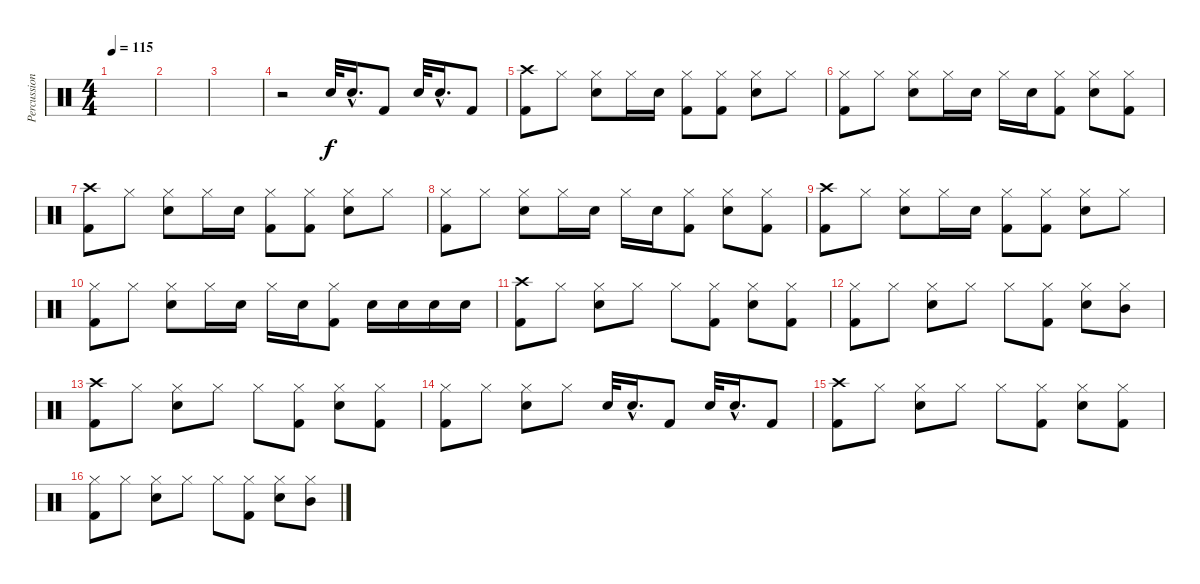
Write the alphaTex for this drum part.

\track ("Percussion" "Percussion") {instrument percussion}
\staff {score}
\articulation defaults
\ts (4 4)
\tempo 115
\clef neutral
\ks c
|
|
|
r.2 "Snare (hit) 2".32 "Snare (hit) 2"{hac}.16{d} "Kick (hit) 2".8 "Snare (hit) 2".32 "Snare (hit) 2"{hac}.16{d} "Kick (hit) 2".8 |
("Crash high (hit)" "Kick (hit) 2").8 "Hi-Hat (closed)".8 ("Hi-Hat (closed)" "Snare (hit) 2").8 "Hi-Hat (closed)".16 "Snare (hit) 2".16 ("Hi-Hat (closed)" "Kick (hit) 2").8 ("Hi-Hat (closed)" "Kick (hit) 2").8 ("Hi-Hat (closed)" "Snare (hit) 2").8 "Hi-Hat (closed)".8 |
("Hi-Hat (closed)" "Kick (hit) 2").8 "Hi-Hat (closed)".8 ("Hi-Hat (closed)" "Snare (hit) 2").8 "Hi-Hat (closed)".16 "Snare (hit) 2".16 "Hi-Hat (closed)".16 "Snare (hit) 2".16 ("Hi-Hat (closed)" "Kick (hit) 2").8 ("Hi-Hat (closed)" "Snare (hit) 2").8 ("Hi-Hat (closed)" "Kick (hit) 2").8 |
("Crash high (hit)" "Kick (hit) 2").8 "Hi-Hat (closed)".8 ("Hi-Hat (closed)" "Snare (hit) 2").8 "Hi-Hat (closed)".16 "Snare (hit) 2".16 ("Hi-Hat (closed)" "Kick (hit) 2").8 ("Hi-Hat (closed)" "Kick (hit) 2").8 ("Hi-Hat (closed)" "Snare (hit) 2").8 "Hi-Hat (closed)".8 |
("Hi-Hat (closed)" "Kick (hit) 2").8 "Hi-Hat (closed)".8 ("Hi-Hat (closed)" "Snare (hit) 2").8 "Hi-Hat (closed)".16 "Snare (hit) 2".16 "Hi-Hat (closed)".16 "Snare (hit) 2".16 ("Hi-Hat (closed)" "Kick (hit) 2").8 ("Hi-Hat (closed)" "Snare (hit) 2").8 ("Hi-Hat (closed)" "Kick (hit) 2").8 |
("Crash high (hit)" "Kick (hit) 2").8 "Hi-Hat (closed)".8 ("Hi-Hat (closed)" "Snare (hit) 2").8 "Hi-Hat (closed)".16 "Snare (hit) 2".16 ("Hi-Hat (closed)" "Kick (hit) 2").8 ("Hi-Hat (closed)" "Kick (hit) 2").8 ("Hi-Hat (closed)" "Snare (hit) 2").8 "Hi-Hat (closed)".8 |
("Hi-Hat (closed)" "Kick (hit) 2").8 "Hi-Hat (closed)".8 ("Hi-Hat (closed)" "Snare (hit) 2").8 "Hi-Hat (closed)".16 "Snare (hit) 2".16 "Hi-Hat (closed)".16 "Snare (hit) 2".16 ("Hi-Hat (closed)" "Kick (hit) 2").8 "Snare (hit) 2".16 "Snare (hit) 2".16 "Snare (hit) 2".16 "Snare (hit) 2".16 |
("Crash high (hit)" "Kick (hit) 2").8 "Hi-Hat (closed)".8 ("Hi-Hat (closed)" "Snare (hit) 2").8 "Hi-Hat (closed)".8 "Hi-Hat (closed)".8 ("Hi-Hat (closed)" "Kick (hit) 2").8 ("Hi-Hat (closed)" "Snare (hit) 2").8 ("Hi-Hat (closed)" "Kick (hit) 2").8 |
("Hi-Hat (closed)" "Kick (hit) 2").8 "Hi-Hat (closed)".8 ("Hi-Hat (closed)" "Snare (hit) 2").8 "Hi-Hat (closed)".8 "Hi-Hat (closed)".8 ("Hi-Hat (closed)" "Kick (hit) 2").8 ("Hi-Hat (closed)" "Snare (hit) 2").8 ("Hi-Hat (closed)" "Mid Tom (hit)").8 |
("Crash high (hit)" "Kick (hit) 2").8 "Hi-Hat (closed)".8 ("Hi-Hat (closed)" "Snare (hit) 2").8 "Hi-Hat (closed)".8 "Hi-Hat (closed)".8 ("Hi-Hat (closed)" "Kick (hit) 2").8 ("Hi-Hat (closed)" "Snare (hit) 2").8 ("Hi-Hat (closed)" "Kick (hit) 2").8 |
("Hi-Hat (closed)" "Kick (hit) 2").8 "Hi-Hat (closed)".8 ("Hi-Hat (closed)" "Snare (hit) 2").8 "Hi-Hat (closed)".8 "Snare (hit) 2".32 "Snare (hit) 2"{hac}.16{d} "Kick (hit) 2".8 "Snare (hit) 2".32 "Snare (hit) 2"{hac}.16{d} "Kick (hit) 2".8 |
("Crash high (hit)" "Kick (hit) 2").8 "Hi-Hat (closed)".8 ("Hi-Hat (closed)" "Snare (hit) 2").8 "Hi-Hat (closed)".8 "Hi-Hat (closed)".8 ("Hi-Hat (closed)" "Kick (hit) 2").8 ("Hi-Hat (closed)" "Snare (hit) 2").8 ("Hi-Hat (closed)" "Kick (hit) 2").8 |
("Hi-Hat (closed)" "Kick (hit) 2").8 "Hi-Hat (closed)".8 ("Hi-Hat (closed)" "Snare (hit) 2").8 "Hi-Hat (closed)".8 "Hi-Hat (closed)".8 ("Hi-Hat (closed)" "Kick (hit) 2").8 ("Hi-Hat (closed)" "Snare (hit) 2").8 ("Hi-Hat (closed)" "Mid Tom (hit)").8
